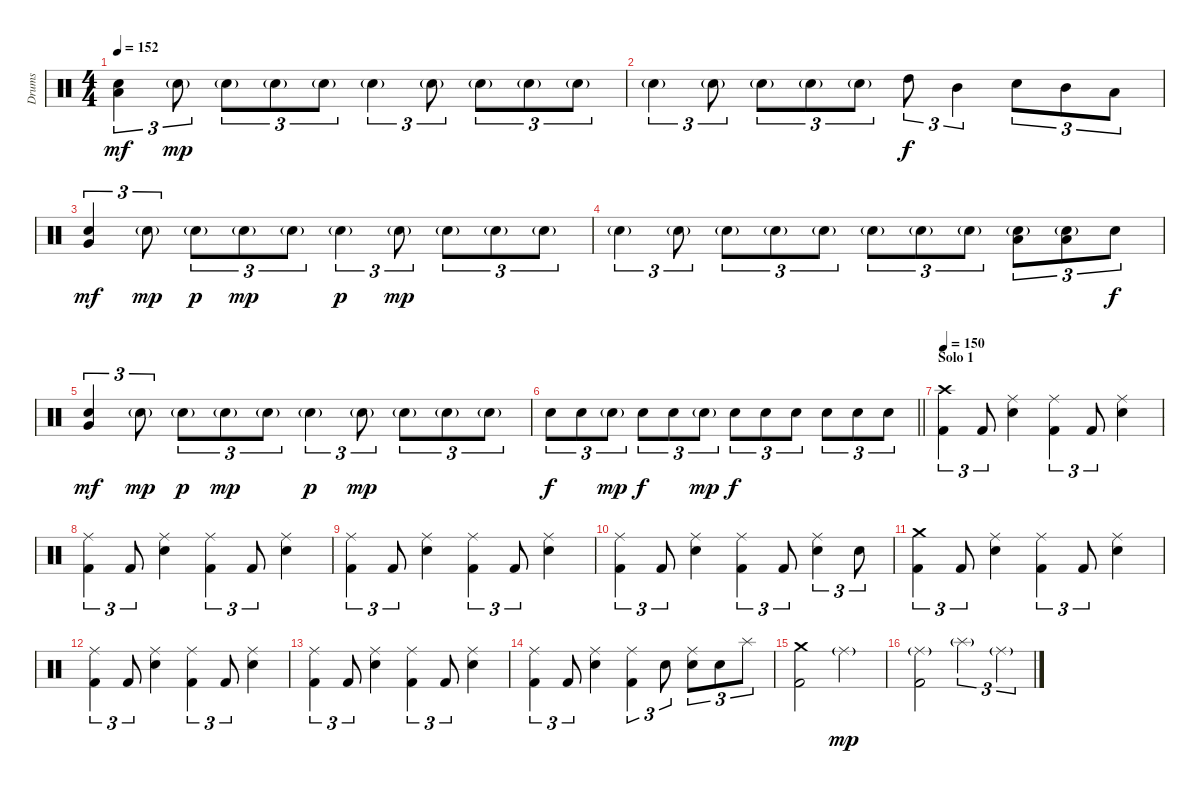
\track ("Drums" "Drums") {instrument percussion}
\staff {score}
\articulation defaults
\ts (4 4)
\tempo 152
\clef neutral
\ks aminor
("Low Tom (hit)" "Electric Snare (hit)").4{tu (3 2) dy mf} "Electric Snare (hit)"{g}.8{tu (3 2) dy mp} "Electric Snare (hit)"{g}.8{tu (3 2)} "Electric Snare (hit)"{g}.8{tu (3 2)} "Electric Snare (hit)"{g}.8{tu (3 2)} "Electric Snare (hit)"{g}.4{tu (3 2)} "Electric Snare (hit)"{g}.8{tu (3 2)} "Electric Snare (hit)"{g}.8{tu (3 2)} "Electric Snare (hit)"{g}.8{tu (3 2)} "Electric Snare (hit)"{g}.8{tu (3 2)} |
"Electric Snare (hit)"{g}.4{tu (3 2)} "Electric Snare (hit)"{g}.8{tu (3 2)} "Electric Snare (hit)"{g}.8{tu (3 2)} "Electric Snare (hit)"{g}.8{tu (3 2)} "Electric Snare (hit)"{g}.8{tu (3 2)} "High Tom (hit)".8{tu (3 2) dy f} "Mid Tom (hit)".4{tu (3 2)} "Electric Snare (hit)".8{tu (3 2)} "Mid Tom (hit)".8{tu (3 2)} "Low Tom (hit)".8{tu (3 2)} |
("Very Low Tom (hit)" "Electric Snare (hit)").4{tu (3 2) dy mf} "Electric Snare (hit)"{g}.8{tu (3 2) dy mp} "Electric Snare (hit)"{g}.8{tu (3 2) dy p} "Electric Snare (hit)"{g}.8{tu (3 2) dy mp} "Electric Snare (hit)"{g}.8{tu (3 2)} "Electric Snare (hit)"{g}.4{tu (3 2) dy p} "Electric Snare (hit)"{g}.8{tu (3 2) dy mp} "Electric Snare (hit)"{g}.8{tu (3 2)} "Electric Snare (hit)"{g}.8{tu (3 2)} "Electric Snare (hit)"{g}.8{tu (3 2)} |
"Electric Snare (hit)"{g}.4{tu (3 2)} "Electric Snare (hit)"{g}.8{tu (3 2)} "Electric Snare (hit)"{g}.8{tu (3 2)} "Electric Snare (hit)"{g}.8{tu (3 2)} "Electric Snare (hit)"{g}.8{tu (3 2)} "Electric Snare (hit)"{g}.8{tu (3 2)} "Electric Snare (hit)"{g}.8{tu (3 2)} "Electric Snare (hit)"{g}.8{tu (3 2)} ("Low Tom (hit)" "Electric Snare (hit)"{g}).8{tu (3 2)} ("Low Tom (hit)" "Electric Snare (hit)"{g}).8{tu (3 2)} "Electric Snare (hit)".8{tu (3 2) dy f} |
("Very Low Tom (hit)" "Electric Snare (hit)").4{tu (3 2) dy mf} "Electric Snare (hit)"{g}.8{tu (3 2) dy mp} "Electric Snare (hit)"{g}.8{tu (3 2) dy p} "Electric Snare (hit)"{g}.8{tu (3 2) dy mp} "Electric Snare (hit)"{g}.8{tu (3 2)} "Electric Snare (hit)"{g}.4{tu (3 2) dy p} "Electric Snare (hit)"{g}.8{tu (3 2) dy mp} "Electric Snare (hit)"{g}.8{tu (3 2)} "Electric Snare (hit)"{g}.8{tu (3 2)} "Electric Snare (hit)"{g}.8{tu (3 2)} |
\barLineRight lightlight "Electric Snare (hit)".8{tu (3 2) dy f volume 13 balance 8} "Electric Snare (hit)".8{tu (3 2)} "Electric Snare (hit)"{g}.8{tu (3 2) dy mp} "Electric Snare (hit)".8{tu (3 2) dy f} "Electric Snare (hit)".8{tu (3 2)} "Electric Snare (hit)"{g}.8{tu (3 2) dy mp} "Electric Snare (hit)".8{tu (3 2) dy f} "Electric Snare (hit)".8{tu (3 2)} "Electric Snare (hit)".8{tu (3 2)} "Electric Snare (hit)".8{tu (3 2)} "Electric Snare (hit)".8{tu (3 2)} "Electric Snare (hit)".8{tu (3 2)}
|
\section ("" "Solo 1")
\tempo 150
("Crash high (hit)" "Kick (hit) 2").4{tu (3 2)} "Kick (hit) 2".8{tu (3 2)} ("Ride (middle)" "Electric Snare (hit)").4 ("Ride (middle)" "Kick (hit) 2").4{tu (3 2)} "Kick (hit) 2".8{tu (3 2)} ("Ride (middle)" "Electric Snare (hit)").4 |
("Ride (middle)" "Kick (hit) 2").4{tu (3 2)} "Kick (hit) 2".8{tu (3 2)} ("Ride (middle)" "Electric Snare (hit)").4 ("Ride (middle)" "Kick (hit) 2").4{tu (3 2)} "Kick (hit) 2".8{tu (3 2)} ("Ride (middle)" "Electric Snare (hit)").4 |
("Ride (middle)" "Kick (hit) 2").4{tu (3 2)} "Kick (hit) 2".8{tu (3 2)} ("Ride (middle)" "Electric Snare (hit)").4 ("Ride (middle)" "Kick (hit) 2").4{tu (3 2)} "Kick (hit) 2".8{tu (3 2)} ("Ride (middle)" "Electric Snare (hit)").4 |
("Ride (middle)" "Kick (hit) 2").4{tu (3 2)} "Kick (hit) 2".8{tu (3 2)} ("Ride (middle)" "Electric Snare (hit)").4 ("Ride (middle)" "Kick (hit) 2").4{tu (3 2)} "Kick (hit) 2".8{tu (3 2)} ("Ride (middle)" "Electric Snare (hit)").4{tu (3 2)} "Electric Snare (hit)".8{tu (3 2)} |
("Crash medium (hit)" "Kick (hit) 2").4{tu (3 2)} "Kick (hit) 2".8{tu (3 2)} ("Ride (middle)" "Electric Snare (hit)").4 ("Ride (middle)" "Kick (hit) 2").4{tu (3 2)} "Kick (hit) 2".8{tu (3 2)} ("Ride (middle)" "Electric Snare (hit)").4 |
("Ride (middle)" "Kick (hit) 2").4{tu (3 2)} "Kick (hit) 2".8{tu (3 2)} ("Ride (middle)" "Electric Snare (hit)").4 ("Ride (middle)" "Kick (hit) 2").4{tu (3 2)} "Kick (hit) 2".8{tu (3 2)} ("Ride (middle)" "Electric Snare (hit)").4 |
("Ride (middle)" "Kick (hit) 2").4{tu (3 2)} "Kick (hit) 2".8{tu (3 2)} ("Ride (middle)" "Electric Snare (hit)").4 ("Ride (middle)" "Kick (hit) 2").4{tu (3 2)} "Kick (hit) 2".8{tu (3 2)} ("Ride (middle)" "Electric Snare (hit)").4 |
("Ride (middle)" "Kick (hit) 2").4{tu (3 2)} "Kick (hit) 2".8{tu (3 2)} ("Ride (middle)" "Electric Snare (hit)").4 ("Ride (middle)" "Kick (hit) 2").4{tu (3 2)} "Electric Snare (hit)".8{tu (3 2)} ("Ride (middle)" "Electric Snare (hit)").8{tu (3 2)} "Electric Snare (hit)".8{tu (3 2)} "Splash (hit)".8{tu (3 2)} |
("Crash medium (hit)" "Kick (hit) 2").2 "Ride (middle)"{g}.2{dy mp} |
("Ride (middle)"{g} "Kick (hit) 2").2 "Splash (hit)"{g}.2{tu (3 2)} "Ride (middle)"{g}.4{tu (3 2)}
